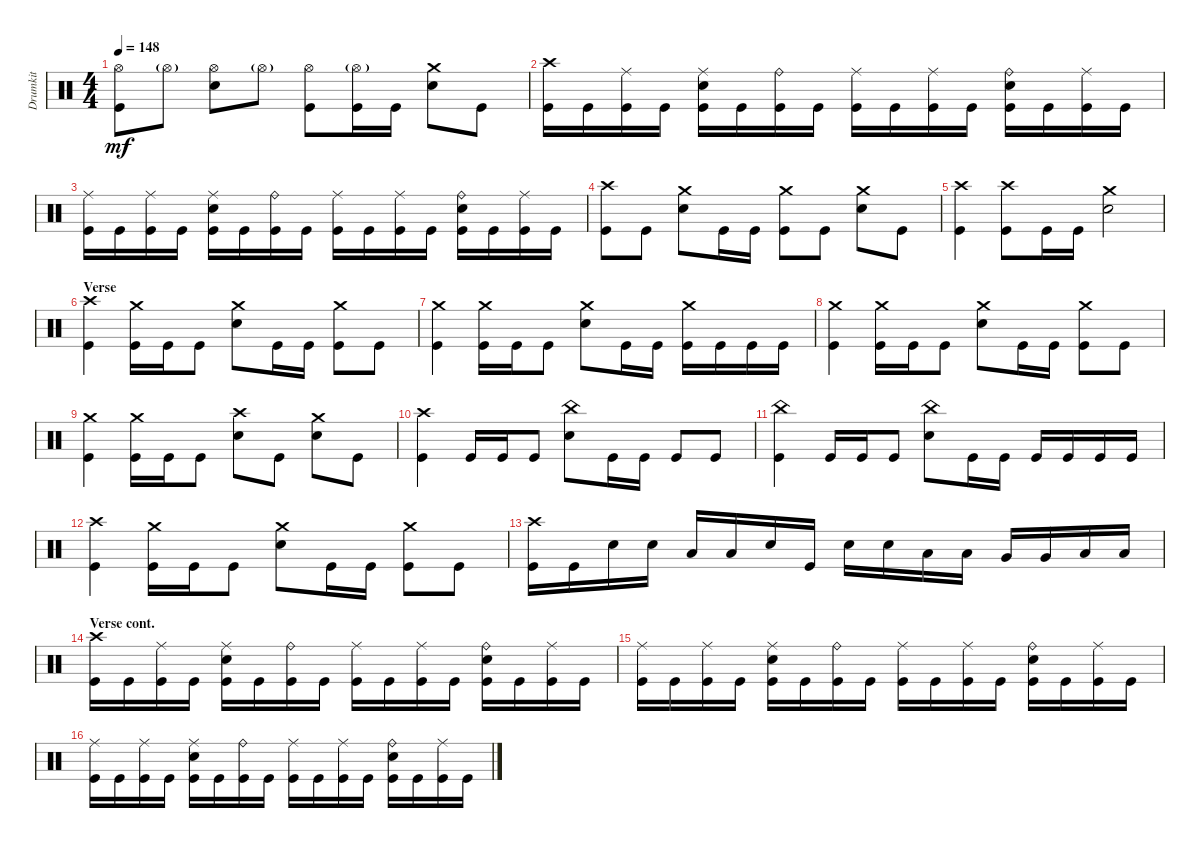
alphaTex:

\track ("Drumkit" "Drumkit") {instrument percussion}
\staff {score}
\articulation defaults
\ts (4 4)
\tempo 148
\clef neutral
\ks c
("Kick (hit)" "Hi-Hat (open)").8{dy mf} "Hi-Hat (open)"{g}.8 ("Hi-Hat (open)" "Snare (hit) 2").8 "Hi-Hat (open)"{g}.8 ("Hi-Hat (open)" "Kick (hit)").8 ("Hi-Hat (open)"{g} "Kick (hit)").16 "Kick (hit)".16 ("Snare (hit) 2" "Crash medium (hit)").8 "Kick (hit)".8 |
("Kick (hit)" "Crash high (hit)").16 "Kick (hit)".16 ("Kick (hit)" "Ride (middle)").16 "Kick (hit)".16 ("Kick (hit)" "Ride (middle)" "Snare (hit) 2").16 "Kick (hit)".16 ("Kick (hit)" "Ride (bell)").16 "Kick (hit)".16 ("Kick (hit)" "Ride (middle)").16 "Kick (hit)".16 ("Kick (hit)" "Ride (middle)").16 "Kick (hit)".16 ("Kick (hit)" "Ride (bell)" "Snare (hit) 2").16 "Kick (hit)".16 ("Kick (hit)" "Ride (middle)").16 "Kick (hit)".16 |
("Kick (hit)" "Ride (middle)").16 "Kick (hit)".16 ("Kick (hit)" "Ride (middle)").16 "Kick (hit)".16 ("Kick (hit)" "Ride (middle)" "Snare (hit) 2").16 "Kick (hit)".16 ("Kick (hit)" "Ride (bell)").16 "Kick (hit)".16 ("Kick (hit)" "Ride (middle)").16 "Kick (hit)".16 ("Kick (hit)" "Ride (middle)").16 "Kick (hit)".16 ("Kick (hit)" "Ride (bell)" "Snare (hit) 2").16 "Kick (hit)".16 ("Kick (hit)" "Ride (middle)").16 "Kick (hit)".16 |
("Kick (hit)" "Crash high (hit)").8 "Kick (hit)".8 ("Snare (hit) 2" "Crash medium (hit)").8 "Kick (hit)".16 "Kick (hit)".16 ("Kick (hit)" "Crash medium (hit)").8 "Kick (hit)".8 ("Snare (hit) 2" "Crash medium (hit)").8 "Kick (hit)".8 |
("Kick (hit)" "Crash high (hit)").4 ("Kick (hit)" "Crash high (hit)").8 "Kick (hit)".16 "Kick (hit)".16 ("Snare (hit) 2" "Crash medium (hit)").2 |
\section ("" "Verse")
("Kick (hit)" "Crash high (hit)").4 ("Kick (hit)" "Crash medium (hit)").16 "Kick (hit)".16 "Kick (hit)".8 ("Snare (hit) 2" "Crash medium (hit)").8 "Kick (hit)".16 "Kick (hit)".16 ("Kick (hit)" "Crash medium (hit)").8 "Kick (hit)".8 |
("Kick (hit)" "Crash medium (hit)").4 ("Kick (hit)" "Crash medium (hit)").16 "Kick (hit)".16 "Kick (hit)".8 ("Snare (hit) 2" "Crash medium (hit)").8 "Kick (hit)".16 "Kick (hit)".16 ("Kick (hit)" "Crash medium (hit)").16 "Kick (hit)".16 "Kick (hit)".16 "Kick (hit)".16 |
("Kick (hit)" "Crash medium (hit)").4 ("Kick (hit)" "Crash medium (hit)").16 "Kick (hit)".16 "Kick (hit)".8 ("Snare (hit) 2" "Crash medium (hit)").8 "Kick (hit)".16 "Kick (hit)".16 ("Kick (hit)" "Crash medium (hit)").8 "Kick (hit)".8 |
("Kick (hit)" "Crash medium (hit)").4 ("Kick (hit)" "Crash medium (hit)").16 "Kick (hit)".16 "Kick (hit)".8 ("Snare (hit) 2" "Crash high (hit)").8 "Kick (hit)".8 ("Snare (hit) 2" "Crash medium (hit)").8 "Kick (hit)".8 |
("Kick (hit)" "Crash high (hit)").4 "Kick (hit)".16 "Kick (hit)".16 "Kick (hit)".8 ("Snare (hit) 2" "China (hit)").8 "Kick (hit)".16 "Kick (hit)".16 "Kick (hit)".8 "Kick (hit)".8 |
("Kick (hit)" "China (hit)").4 "Kick (hit)".16 "Kick (hit)".16 "Kick (hit)".8 ("Snare (hit) 2" "China (hit)").8 "Kick (hit)".16 "Kick (hit)".16 "Kick (hit)".16 "Kick (hit)".16 "Kick (hit)".16 "Kick (hit)".16 |
("Kick (hit)" "Crash high (hit)").4 ("Kick (hit)" "Crash medium (hit)").16 "Kick (hit)".16 "Kick (hit)".8 ("Snare (hit) 2" "Crash medium (hit)").8 "Kick (hit)".16 "Kick (hit)".16 ("Kick (hit)" "Crash medium (hit)").8 "Kick (hit)".8 |
("Kick (hit)" "Crash high (hit)").16 "Kick (hit)".16 "Snare (hit) 2".16 "Snare (hit) 2".16 "Low Tom (hit)".16 "Low Tom (hit)".16 "Snare (hit) 2".16 "Kick (hit)".16 "Snare (hit) 2".16 "Snare (hit) 2".16 "Low Tom (hit)".16 "Low Tom (hit)".16 "Very Low Tom (hit)".16 "Very Low Tom (hit)".16 "Low Floor Tom (hit)".16 "Low Floor Tom (hit)".16 |
\section ("" "Verse cont.")
("Kick (hit)" "Crash high (hit)").16 "Kick (hit)".16 ("Kick (hit)" "Ride (middle)").16 "Kick (hit)".16 ("Kick (hit)" "Ride (middle)" "Snare (hit) 2").16 "Kick (hit)".16 ("Kick (hit)" "Ride (bell)").16 "Kick (hit)".16 ("Kick (hit)" "Ride (middle)").16 "Kick (hit)".16 ("Kick (hit)" "Ride (middle)").16 "Kick (hit)".16 ("Kick (hit)" "Ride (bell)" "Snare (hit) 2").16 "Kick (hit)".16 ("Kick (hit)" "Ride (middle)").16 "Kick (hit)".16 |
("Kick (hit)" "Ride (middle)").16 "Kick (hit)".16 ("Kick (hit)" "Ride (middle)").16 "Kick (hit)".16 ("Kick (hit)" "Ride (middle)" "Snare (hit) 2").16 "Kick (hit)".16 ("Kick (hit)" "Ride (bell)").16 "Kick (hit)".16 ("Kick (hit)" "Ride (middle)").16 "Kick (hit)".16 ("Kick (hit)" "Ride (middle)").16 "Kick (hit)".16 ("Kick (hit)" "Ride (bell)" "Snare (hit) 2").16 "Kick (hit)".16 ("Kick (hit)" "Ride (middle)").16 "Kick (hit)".16 |
("Kick (hit)" "Ride (middle)").16 "Kick (hit)".16 ("Kick (hit)" "Ride (middle)").16 "Kick (hit)".16 ("Kick (hit)" "Ride (middle)" "Snare (hit) 2").16 "Kick (hit)".16 ("Kick (hit)" "Ride (bell)").16 "Kick (hit)".16 ("Kick (hit)" "Ride (middle)").16 "Kick (hit)".16 ("Kick (hit)" "Ride (middle)").16 "Kick (hit)".16 ("Kick (hit)" "Ride (bell)" "Snare (hit) 2").16 "Kick (hit)".16 ("Kick (hit)" "Ride (middle)").16 "Kick (hit)".16
